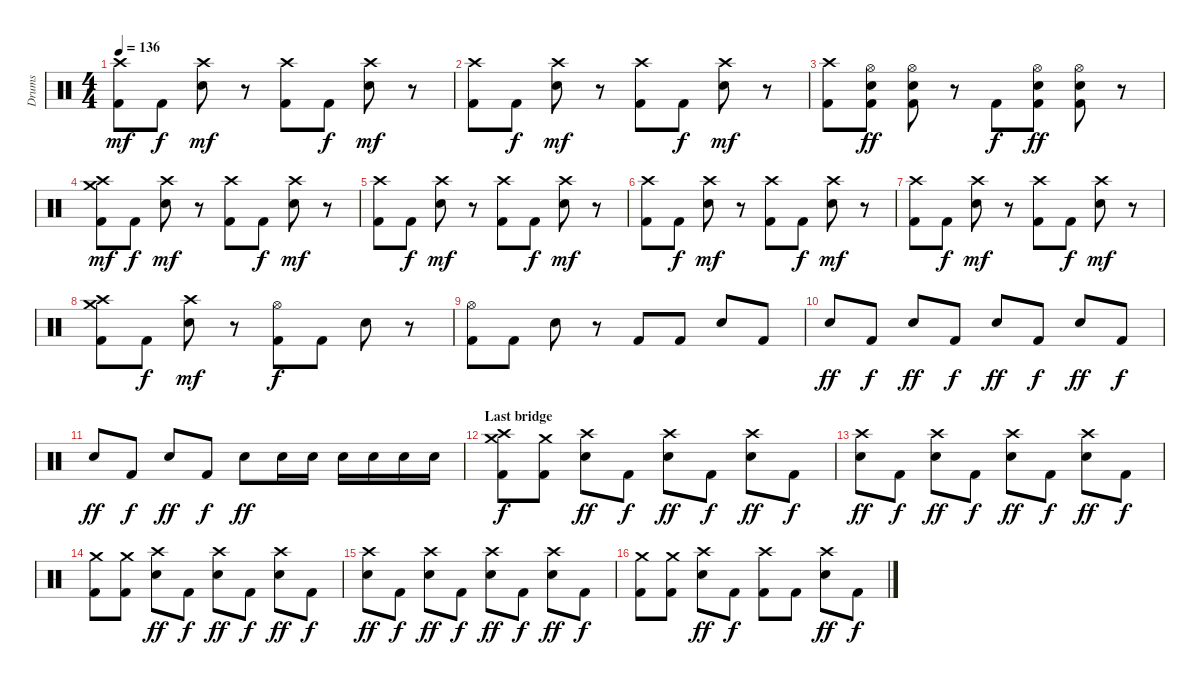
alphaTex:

\track ("Drums" "Drums") {instrument percussion}
\staff {score}
\articulation defaults
\ts (4 4)
\tempo 136
\clef neutral
\ks c
("Crash high (hit)" "Kick (hit) 2").8{dy mf} "Kick (hit) 2".8{dy f} ("Crash high (hit)" "Electric Snare (hit)").8{dy mf} r.8 ("Crash high (hit)" "Kick (hit) 2").8 "Kick (hit) 2".8{dy f} ("Crash high (hit)" "Electric Snare (hit)").8{dy mf} r.8 |
("Crash high (hit)" "Kick (hit) 2").8 "Kick (hit) 2".8{dy f} ("Crash high (hit)" "Electric Snare (hit)").8{dy mf} r.8 ("Crash high (hit)" "Kick (hit) 2").8 "Kick (hit) 2".8{dy f} ("Crash high (hit)" "Electric Snare (hit)").8{dy mf} r.8 |
("Crash high (hit)" "Kick (hit) 2").8 ("Hi-Hat (open)" "Electric Snare (hit)" "Kick (hit) 2").8{dy ff} ("Hi-Hat (open)" "Electric Snare (hit)" "Kick (hit) 2").8 r.8 "Kick (hit) 2".8{dy f} ("Hi-Hat (open)" "Electric Snare (hit)" "Kick (hit) 2").8{dy ff} ("Hi-Hat (open)" "Electric Snare (hit)" "Kick (hit) 2").8 r.8 |
("Crash medium (hit)" "Crash high (hit)" "Kick (hit) 2").8{dy mf} "Kick (hit) 2".8{dy f} ("Crash high (hit)" "Electric Snare (hit)").8{dy mf} r.8 ("Crash high (hit)" "Kick (hit) 2").8 "Kick (hit) 2".8{dy f} ("Crash high (hit)" "Electric Snare (hit)").8{dy mf} r.8 |
("Crash high (hit)" "Kick (hit) 2").8 "Kick (hit) 2".8{dy f} ("Crash high (hit)" "Electric Snare (hit)").8{dy mf} r.8 ("Crash high (hit)" "Kick (hit) 2").8 "Kick (hit) 2".8{dy f} ("Crash high (hit)" "Electric Snare (hit)").8{dy mf} r.8 |
("Crash high (hit)" "Kick (hit) 2").8 "Kick (hit) 2".8{dy f} ("Crash high (hit)" "Electric Snare (hit)").8{dy mf} r.8 ("Crash high (hit)" "Kick (hit) 2").8 "Kick (hit) 2".8{dy f} ("Crash high (hit)" "Electric Snare (hit)").8{dy mf} r.8 |
("Crash high (hit)" "Kick (hit) 2").8 "Kick (hit) 2".8{dy f} ("Crash high (hit)" "Electric Snare (hit)").8{dy mf} r.8 ("Crash high (hit)" "Kick (hit) 2").8 "Kick (hit) 2".8{dy f} ("Crash high (hit)" "Electric Snare (hit)").8{dy mf} r.8 |
("Crash medium (hit)" "Crash high (hit)" "Kick (hit) 2").8 "Kick (hit) 2".8{dy f} ("Crash high (hit)" "Electric Snare (hit)").8{dy mf} r.8 ("Hi-Hat (open)" "Kick (hit) 2").8{dy f} "Kick (hit) 2".8 "Electric Snare (hit)".8 r.8 |
("Hi-Hat (open)" "Kick (hit) 2").8 "Kick (hit) 2".8 "Electric Snare (hit)".8 r.8 "Kick (hit) 2".8 "Kick (hit) 2".8 "Electric Snare (hit)".8 "Kick (hit) 2".8 |
"Electric Snare (hit)".8{dy ff} "Kick (hit) 2".8{dy f} "Electric Snare (hit)".8{dy ff} "Kick (hit) 2".8{dy f} "Electric Snare (hit)".8{dy ff} "Kick (hit) 2".8{dy f} "Electric Snare (hit)".8{dy ff} "Kick (hit) 2".8{dy f} |
"Electric Snare (hit)".8{dy ff} "Kick (hit) 2".8{dy f} "Electric Snare (hit)".8{dy ff} "Kick (hit) 2".8{dy f} "Electric Snare (hit)".8{dy ff} "Electric Snare (hit)".16 "Electric Snare (hit)".16 "Electric Snare (hit)".16 "Electric Snare (hit)".16 "Electric Snare (hit)".16 "Electric Snare (hit)".16 |
\section ("" "Last bridge")
("Crash medium (hit)" "Crash high (hit)" "Kick (hit) 2").8{dy f} ("Crash medium (hit)" "Kick (hit) 2").8 ("Crash high (hit)" "Electric Snare (hit)").8{dy ff} "Kick (hit) 2".8{dy f} ("Crash high (hit)" "Electric Snare (hit)").8{dy ff} "Kick (hit) 2".8{dy f} ("Crash high (hit)" "Electric Snare (hit)").8{dy ff} "Kick (hit) 2".8{dy f} |
("Crash high (hit)" "Electric Snare (hit)").8{dy ff} "Kick (hit) 2".8{dy f} ("Crash high (hit)" "Electric Snare (hit)").8{dy ff} "Kick (hit) 2".8{dy f} ("Crash high (hit)" "Electric Snare (hit)").8{dy ff} "Kick (hit) 2".8{dy f} ("Crash high (hit)" "Electric Snare (hit)").8{dy ff} "Kick (hit) 2".8{dy f} |
("Crash medium (hit)" "Kick (hit) 2").8 ("Crash medium (hit)" "Kick (hit) 2").8 ("Crash high (hit)" "Electric Snare (hit)").8{dy ff} "Kick (hit) 2".8{dy f} ("Crash high (hit)" "Electric Snare (hit)").8{dy ff} "Kick (hit) 2".8{dy f} ("Crash high (hit)" "Electric Snare (hit)").8{dy ff} "Kick (hit) 2".8{dy f} |
("Crash high (hit)" "Electric Snare (hit)").8{dy ff} "Kick (hit) 2".8{dy f} ("Crash high (hit)" "Electric Snare (hit)").8{dy ff} "Kick (hit) 2".8{dy f} ("Crash high (hit)" "Electric Snare (hit)").8{dy ff} "Kick (hit) 2".8{dy f} ("Crash high (hit)" "Electric Snare (hit)").8{dy ff} "Kick (hit) 2".8{dy f} |
("Crash medium (hit)" "Kick (hit) 2").8 ("Crash medium (hit)" "Kick (hit) 2").8 ("Crash high (hit)" "Electric Snare (hit)").8{dy ff} "Kick (hit) 2".8{dy f} ("Crash high (hit)" "Kick (hit) 2").8 "Kick (hit) 2".8 ("Crash high (hit)" "Electric Snare (hit)").8{dy ff} "Kick (hit) 2".8{dy f}
